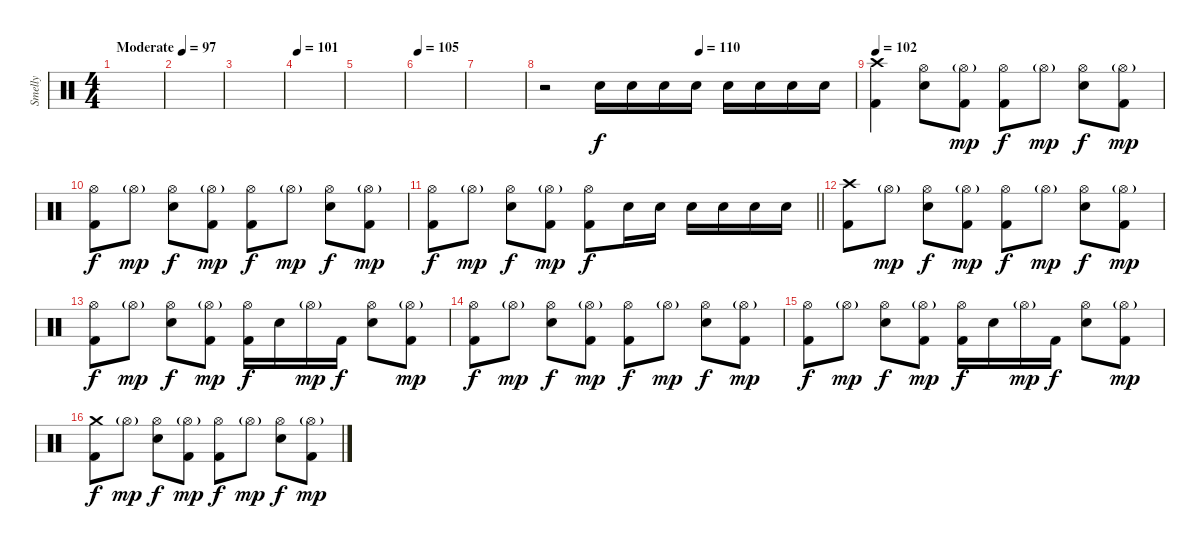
\track ("Smelly" "Smelly") {instrument percussion}
\staff {score}
\articulation defaults
\ts (4 4)
\tempo (97 "Moderate")
\clef neutral
\ks c
|
|
|
\tempo 101
|
|
\tempo 105
|
|
\tempo (110 0.5)
r.2 "Electric Snare (hit)".16 "Electric Snare (hit)".16 "Electric Snare (hit)".16 "Electric Snare (hit)".16 "Electric Snare (hit)".16 "Electric Snare (hit)".16 "Electric Snare (hit)".16 "Electric Snare (hit)".16 |
\tempo 102
("Crash high (hit)" "Kick (hit) 2").4 ("Hi-Hat (open)" "Electric Snare (hit)").8 ("Hi-Hat (open)"{g} "Kick (hit) 2").8{dy mp} ("Hi-Hat (open)" "Kick (hit) 2").8{dy f} "Hi-Hat (open)"{g}.8{dy mp} ("Hi-Hat (open)" "Electric Snare (hit)").8{dy f} ("Hi-Hat (open)"{g} "Kick (hit) 2").8{dy mp} |
("Hi-Hat (open)" "Kick (hit) 2").8{dy f} "Hi-Hat (open)"{g}.8{dy mp} ("Hi-Hat (open)" "Electric Snare (hit)").8{dy f} ("Hi-Hat (open)"{g} "Kick (hit) 2").8{dy mp} ("Hi-Hat (open)" "Kick (hit) 2").8{dy f} "Hi-Hat (open)"{g}.8{dy mp} ("Hi-Hat (open)" "Electric Snare (hit)").8{dy f} ("Hi-Hat (open)"{g} "Kick (hit) 2").8{dy mp} |
\barLineRight lightlight
("Hi-Hat (open)" "Kick (hit) 2").8{dy f} "Hi-Hat (open)"{g}.8{dy mp} ("Hi-Hat (open)" "Electric Snare (hit)").8{dy f} ("Hi-Hat (open)"{g} "Kick (hit) 2").8{dy mp} ("Hi-Hat (open)" "Kick (hit) 2").8{dy f} "Electric Snare (hit)".16 "Electric Snare (hit)".16 "Electric Snare (hit)".16 "Electric Snare (hit)".16 "Electric Snare (hit)".16 "Electric Snare (hit)".16 |
\section ("" "")
("Crash high (hit)" "Kick (hit) 2").8 "Hi-Hat (open)"{g}.8{dy mp} ("Hi-Hat (open)" "Electric Snare (hit)").8{dy f} ("Hi-Hat (open)"{g} "Kick (hit) 2").8{dy mp} ("Hi-Hat (open)" "Kick (hit) 2").8{dy f} "Hi-Hat (open)"{g}.8{dy mp} ("Hi-Hat (open)" "Electric Snare (hit)").8{dy f} ("Hi-Hat (open)"{g} "Kick (hit) 2").8{dy mp} |
("Hi-Hat (open)" "Kick (hit) 2").8{dy f} "Hi-Hat (open)"{g}.8{dy mp} ("Hi-Hat (open)" "Electric Snare (hit)").8{dy f} ("Hi-Hat (open)"{g} "Kick (hit) 2").8{dy mp} ("Hi-Hat (open)" "Kick (hit) 2").16{dy f} "Electric Snare (hit)".16 "Hi-Hat (open)"{g}.16{dy mp} "Kick (hit) 2".16{dy f} ("Hi-Hat (open)" "Electric Snare (hit)").8 ("Hi-Hat (open)"{g} "Kick (hit) 2").8{dy mp} |
("Hi-Hat (open)" "Kick (hit) 2").8{dy f} "Hi-Hat (open)"{g}.8{dy mp} ("Hi-Hat (open)" "Electric Snare (hit)").8{dy f} ("Hi-Hat (open)"{g} "Kick (hit) 2").8{dy mp} ("Hi-Hat (open)" "Kick (hit) 2").8{dy f} "Hi-Hat (open)"{g}.8{dy mp} ("Hi-Hat (open)" "Electric Snare (hit)").8{dy f} ("Hi-Hat (open)"{g} "Kick (hit) 2").8{dy mp} |
("Hi-Hat (open)" "Kick (hit) 2").8{dy f} "Hi-Hat (open)"{g}.8{dy mp} ("Hi-Hat (open)" "Electric Snare (hit)").8{dy f} ("Hi-Hat (open)"{g} "Kick (hit) 2").8{dy mp} ("Hi-Hat (open)" "Kick (hit) 2").16{dy f} "Electric Snare (hit)".16 "Hi-Hat (open)"{g}.16{dy mp} "Kick (hit) 2".16{dy f} ("Hi-Hat (open)" "Electric Snare (hit)").8 ("Hi-Hat (open)"{g} "Kick (hit) 2").8{dy mp} |
("Crash medium (hit)" "Kick (hit) 2").8{dy f} "Hi-Hat (open)"{g}.8{dy mp} ("Hi-Hat (open)" "Electric Snare (hit)").8{dy f} ("Hi-Hat (open)"{g} "Kick (hit) 2").8{dy mp} ("Hi-Hat (open)" "Kick (hit) 2").8{dy f} "Hi-Hat (open)"{g}.8{dy mp} ("Hi-Hat (open)" "Electric Snare (hit)").8{dy f} ("Hi-Hat (open)"{g} "Kick (hit) 2").8{dy mp}
